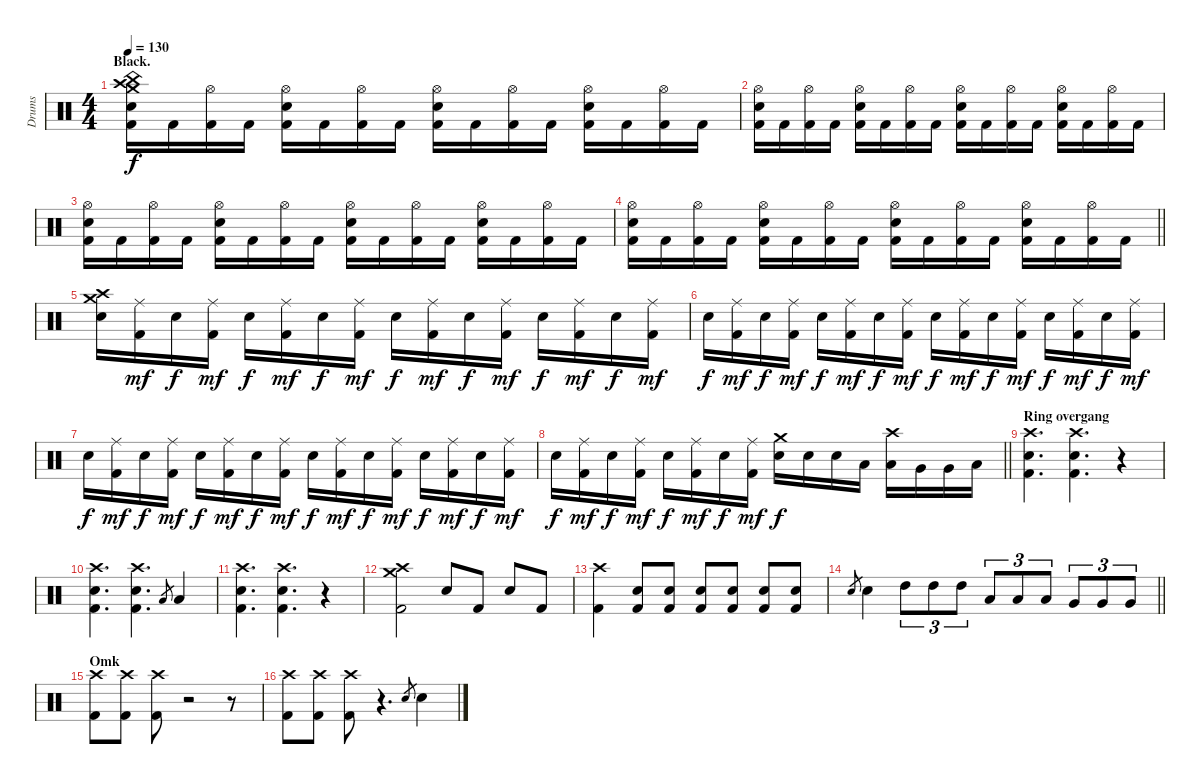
\track ("Drums" "Drums") {instrument percussion}
\staff {score}
\articulation defaults
\ts (4 4)
\section ("" "Black.")
\tempo 130
\clef neutral
\ks c
("Crash medium (hit)" "Crash high (hit)" "China (hit)" "Snare (hit) 2" "Kick (hit) 2").16{dy f} "Kick (hit) 2".16 ("Hi-Hat (open)" "Kick (hit) 2").16 "Kick (hit) 2".16 ("Hi-Hat (open)" "Snare (hit) 2" "Kick (hit) 2").16 "Kick (hit) 2".16 ("Hi-Hat (open)" "Kick (hit) 2").16 "Kick (hit) 2".16 ("Hi-Hat (open)" "Snare (hit) 2" "Kick (hit) 2").16 "Kick (hit) 2".16 ("Hi-Hat (open)" "Kick (hit) 2").16 "Kick (hit) 2".16 ("Hi-Hat (open)" "Snare (hit) 2" "Kick (hit) 2").16 "Kick (hit) 2".16 ("Hi-Hat (open)" "Kick (hit) 2").16 "Kick (hit) 2".16 |
("Hi-Hat (open)" "Snare (hit) 2" "Kick (hit) 2").16 "Kick (hit) 2".16 ("Hi-Hat (open)" "Kick (hit) 2").16 "Kick (hit) 2".16 ("Hi-Hat (open)" "Snare (hit) 2" "Kick (hit) 2").16 "Kick (hit) 2".16 ("Hi-Hat (open)" "Kick (hit) 2").16 "Kick (hit) 2".16 ("Hi-Hat (open)" "Snare (hit) 2" "Kick (hit) 2").16 "Kick (hit) 2".16 ("Hi-Hat (open)" "Kick (hit) 2").16 "Kick (hit) 2".16 ("Hi-Hat (open)" "Snare (hit) 2" "Kick (hit) 2").16 "Kick (hit) 2".16 ("Hi-Hat (open)" "Kick (hit) 2").16 "Kick (hit) 2".16 |
("Hi-Hat (open)" "Snare (hit) 2" "Kick (hit) 2").16 "Kick (hit) 2".16 ("Hi-Hat (open)" "Kick (hit) 2").16 "Kick (hit) 2".16 ("Hi-Hat (open)" "Snare (hit) 2" "Kick (hit) 2").16 "Kick (hit) 2".16 ("Hi-Hat (open)" "Kick (hit) 2").16 "Kick (hit) 2".16 ("Hi-Hat (open)" "Snare (hit) 2" "Kick (hit) 2").16 "Kick (hit) 2".16 ("Hi-Hat (open)" "Kick (hit) 2").16 "Kick (hit) 2".16 ("Hi-Hat (open)" "Snare (hit) 2" "Kick (hit) 2").16 "Kick (hit) 2".16 ("Hi-Hat (open)" "Kick (hit) 2").16 "Kick (hit) 2".16 |
\barLineRight lightlight
("Hi-Hat (open)" "Snare (hit) 2" "Kick (hit) 2").16 "Kick (hit) 2".16 ("Hi-Hat (open)" "Kick (hit) 2").16 "Kick (hit) 2".16 ("Hi-Hat (open)" "Snare (hit) 2" "Kick (hit) 2").16 "Kick (hit) 2".16 ("Hi-Hat (open)" "Kick (hit) 2").16 "Kick (hit) 2".16 ("Hi-Hat (open)" "Snare (hit) 2" "Kick (hit) 2").16 "Kick (hit) 2".16 ("Hi-Hat (open)" "Kick (hit) 2").16 "Kick (hit) 2".16 ("Hi-Hat (open)" "Snare (hit) 2" "Kick (hit) 2").16 "Kick (hit) 2".16 ("Hi-Hat (open)" "Kick (hit) 2").16 "Kick (hit) 2".16 |
("Crash medium (hit)" "Crash high (hit)" "Snare (hit) 2").16 ("Ride (middle)" "Kick (hit) 2").16{dy mf} "Snare (hit) 2".16{dy f} ("Ride (middle)" "Kick (hit) 2").16{dy mf} "Snare (hit) 2".16{dy f} ("Ride (middle)" "Kick (hit) 2").16{dy mf} "Snare (hit) 2".16{dy f} ("Ride (middle)" "Kick (hit) 2").16{dy mf} "Snare (hit) 2".16{dy f} ("Ride (middle)" "Kick (hit) 2").16{dy mf} "Snare (hit) 2".16{dy f} ("Ride (middle)" "Kick (hit) 2").16{dy mf} "Snare (hit) 2".16{dy f} ("Ride (middle)" "Kick (hit) 2").16{dy mf} "Snare (hit) 2".16{dy f} ("Ride (middle)" "Kick (hit) 2").16{dy mf} |
"Snare (hit) 2".16{dy f} ("Ride (middle)" "Kick (hit) 2").16{dy mf} "Snare (hit) 2".16{dy f} ("Ride (middle)" "Kick (hit) 2").16{dy mf} "Snare (hit) 2".16{dy f} ("Ride (middle)" "Kick (hit) 2").16{dy mf} "Snare (hit) 2".16{dy f} ("Ride (middle)" "Kick (hit) 2").16{dy mf} "Snare (hit) 2".16{dy f} ("Ride (middle)" "Kick (hit) 2").16{dy mf} "Snare (hit) 2".16{dy f} ("Ride (middle)" "Kick (hit) 2").16{dy mf} "Snare (hit) 2".16{dy f} ("Ride (middle)" "Kick (hit) 2").16{dy mf} "Snare (hit) 2".16{dy f} ("Ride (middle)" "Kick (hit) 2").16{dy mf} |
"Snare (hit) 2".16{dy f} ("Ride (middle)" "Kick (hit) 2").16{dy mf} "Snare (hit) 2".16{dy f} ("Ride (middle)" "Kick (hit) 2").16{dy mf} "Snare (hit) 2".16{dy f} ("Ride (middle)" "Kick (hit) 2").16{dy mf} "Snare (hit) 2".16{dy f} ("Ride (middle)" "Kick (hit) 2").16{dy mf} "Snare (hit) 2".16{dy f} ("Ride (middle)" "Kick (hit) 2").16{dy mf} "Snare (hit) 2".16{dy f} ("Ride (middle)" "Kick (hit) 2").16{dy mf} "Snare (hit) 2".16{dy f} ("Ride (middle)" "Kick (hit) 2").16{dy mf} "Snare (hit) 2".16{dy f} ("Ride (middle)" "Kick (hit) 2").16{dy mf} |
\barLineRight lightlight "Snare (hit) 2".16{dy f}
("Ride (middle)" "Kick (hit) 2").16{dy mf} "Snare (hit) 2".16{dy f} ("Ride (middle)" "Kick (hit) 2").16{dy mf} "Snare (hit) 2".16{dy f} ("Ride (middle)" "Kick (hit) 2").16{dy mf} "Snare (hit) 2".16{dy f} ("Ride (middle)" "Kick (hit) 2").16{dy mf} ("Crash medium (hit)" "Snare (hit) 2").16{dy f} "Snare (hit) 2".16 "Snare (hit) 2".16 "Low Tom (hit)".16 ("Crash high (hit)" "Low Tom (hit)").16 "Very Low Tom (hit)".16 "Very Low Tom (hit)".16 "Low Floor Tom (hit)".16 |
\section ("" "Ring overgang")
("Crash high (hit)" "Snare (hit) 2" "Kick (hit) 2").4{d} ("Crash high (hit)" "Snare (hit) 2" "Kick (hit) 2").4{d} r.4 |
("Crash high (hit)" "Snare (hit) 2" "Kick (hit) 2").4{d} ("Crash high (hit)" "Snare (hit) 2" "Kick (hit) 2").4{d} "Low Tom (hit)".8{gr} "Low Tom (hit)".4 |
("Crash high (hit)" "Snare (hit) 2" "Kick (hit) 2").4{d} ("Crash high (hit)" "Snare (hit) 2" "Kick (hit) 2").4{d} r.4 |
("Crash medium (hit)" "Crash high (hit)" "Kick (hit) 2").2 "Snare (hit) 2".8 "Kick (hit) 2".8 "Snare (hit) 2".8 "Kick (hit) 2".8 |
("Crash high (hit)" "Kick (hit) 2").4 ("Snare (hit) 2" "Kick (hit) 2").8 ("Snare (hit) 2" "Kick (hit) 2").8 ("Snare (hit) 2" "Kick (hit) 2").8 ("Snare (hit) 2" "Kick (hit) 2").8 ("Snare (hit) 2" "Kick (hit) 2").8 ("Snare (hit) 2" "Kick (hit) 2").8 |
\barLineRight lightlight "Snare (hit) 2".8{gr} "Snare (hit) 2".4 "High Tom (hit)".8{tu (3 2)} "High Tom (hit)".8{tu (3 2)} "High Tom (hit)".8{tu (3 2)} "Low Tom (hit)".8{tu (3 2)} "Low Tom (hit)".8{tu (3 2)} "Low Tom (hit)".8{tu (3 2)} "Very Low Tom (hit)".8{tu (3 2)} "Very Low Tom (hit)".8{tu (3 2)} "Very Low Tom (hit)".8{tu (3 2)}
|
\section ("" "Omk")
("Crash high (hit)" "Kick (hit) 2").8 ("Crash high (hit)" "Kick (hit) 2").8 ("Crash high (hit)" "Kick (hit) 2").8 r.2 r.8 |
("Crash high (hit)" "Kick (hit) 2").8 ("Crash high (hit)" "Kick (hit) 2").8 ("Crash high (hit)" "Kick (hit) 2").8 r.4{d} "Snare (hit) 2".8{gr} "Snare (hit) 2".4
